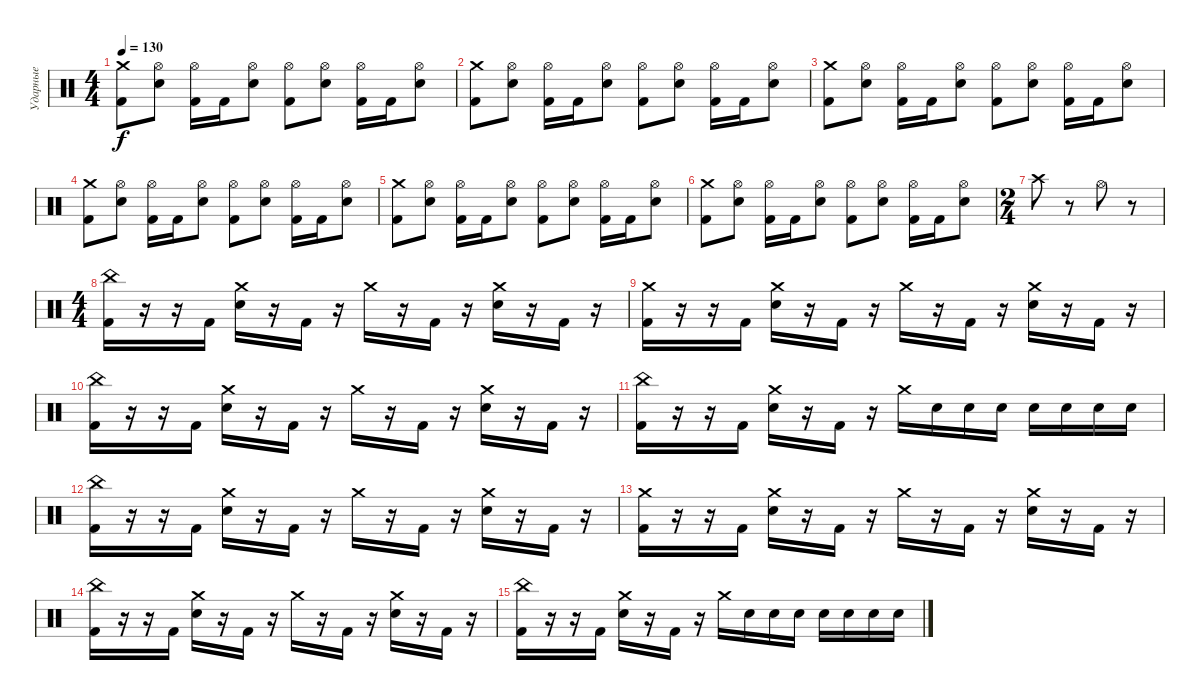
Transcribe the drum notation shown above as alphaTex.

\track ("Ударные" "Ударные") {instrument percussion}
\staff {score}
\articulation defaults
\ts (4 4)
\tempo 130
\clef neutral
\ks c
("Crash medium (hit)" "Kick (hit) 2").8{dy f} ("Hi-Hat (open)" "Electric Snare (hit)").8 ("Hi-Hat (open)" "Kick (hit) 2").16 "Kick (hit) 2".16 ("Hi-Hat (open)" "Electric Snare (hit)").8 ("Hi-Hat (open)" "Kick (hit) 2").8 ("Hi-Hat (open)" "Electric Snare (hit)").8 ("Hi-Hat (open)" "Kick (hit) 2").16 "Kick (hit) 2".16 ("Hi-Hat (open)" "Electric Snare (hit)").8 |
("Crash medium (hit)" "Kick (hit) 2").8 ("Hi-Hat (open)" "Electric Snare (hit)").8 ("Hi-Hat (open)" "Kick (hit) 2").16 "Kick (hit) 2".16 ("Hi-Hat (open)" "Electric Snare (hit)").8 ("Hi-Hat (open)" "Kick (hit) 2").8 ("Hi-Hat (open)" "Electric Snare (hit)").8 ("Hi-Hat (open)" "Kick (hit) 2").16 "Kick (hit) 2".16 ("Hi-Hat (open)" "Electric Snare (hit)").8 |
("Crash medium (hit)" "Kick (hit) 2").8 ("Hi-Hat (open)" "Electric Snare (hit)").8 ("Hi-Hat (open)" "Kick (hit) 2").16 "Kick (hit) 2".16 ("Hi-Hat (open)" "Electric Snare (hit)").8 ("Hi-Hat (open)" "Kick (hit) 2").8 ("Hi-Hat (open)" "Electric Snare (hit)").8 ("Hi-Hat (open)" "Kick (hit) 2").16 "Kick (hit) 2".16 ("Hi-Hat (open)" "Electric Snare (hit)").8 |
("Crash medium (hit)" "Kick (hit) 2").8 ("Hi-Hat (open)" "Electric Snare (hit)").8 ("Hi-Hat (open)" "Kick (hit) 2").16 "Kick (hit) 2".16 ("Hi-Hat (open)" "Electric Snare (hit)").8 ("Hi-Hat (open)" "Kick (hit) 2").8 ("Hi-Hat (open)" "Electric Snare (hit)").8 ("Hi-Hat (open)" "Kick (hit) 2").16 "Kick (hit) 2".16 ("Hi-Hat (open)" "Electric Snare (hit)").8 |
("Crash medium (hit)" "Kick (hit) 2").8 ("Hi-Hat (open)" "Electric Snare (hit)").8 ("Hi-Hat (open)" "Kick (hit) 2").16 "Kick (hit) 2".16 ("Hi-Hat (open)" "Electric Snare (hit)").8 ("Hi-Hat (open)" "Kick (hit) 2").8 ("Hi-Hat (open)" "Electric Snare (hit)").8 ("Hi-Hat (open)" "Kick (hit) 2").16 "Kick (hit) 2".16 ("Hi-Hat (open)" "Electric Snare (hit)").8 |
("Crash medium (hit)" "Kick (hit) 2").8 ("Hi-Hat (open)" "Electric Snare (hit)").8 ("Hi-Hat (open)" "Kick (hit) 2").16 "Kick (hit) 2".16 ("Hi-Hat (open)" "Electric Snare (hit)").8 ("Hi-Hat (open)" "Kick (hit) 2").8 ("Hi-Hat (open)" "Electric Snare (hit)").8 ("Hi-Hat (open)" "Kick (hit) 2").16 "Kick (hit) 2".16 ("Hi-Hat (open)" "Electric Snare (hit)").8 |
\ts (2 4)
"Crash high (hit)".8 r.8{volume 0} "Hi-Hat (open)".8{volume 15} r.8{volume 0} |
\ts (4 4)
("China (hit)" "Kick (hit) 2").16{volume 15} r.16 r.16 "Kick (hit) 2".16 ("Crash medium (hit)" "Electric Snare (hit)").16 r.16 "Kick (hit) 2".16 r.16 "Crash medium (hit)".16 r.16 "Kick (hit) 2".16 r.16 ("Crash medium (hit)" "Electric Snare (hit)").16 r.16 "Kick (hit) 2".16 r.16 |
("Crash medium (hit)" "Kick (hit) 2").16 r.16 r.16 "Kick (hit) 2".16 ("Crash medium (hit)" "Electric Snare (hit)").16 r.16 "Kick (hit) 2".16 r.16 "Crash medium (hit)".16 r.16 "Kick (hit) 2".16 r.16 ("Crash medium (hit)" "Electric Snare (hit)").16 r.16 "Kick (hit) 2".16 r.16 |
("China (hit)" "Kick (hit) 2").16 r.16 r.16 "Kick (hit) 2".16 ("Crash medium (hit)" "Electric Snare (hit)").16 r.16 "Kick (hit) 2".16 r.16 "Crash medium (hit)".16 r.16 "Kick (hit) 2".16 r.16 ("Crash medium (hit)" "Electric Snare (hit)").16 r.16 "Kick (hit) 2".16 r.16 |
("China (hit)" "Kick (hit) 2").16 r.16 r.16 "Kick (hit) 2".16 ("Crash medium (hit)" "Electric Snare (hit)").16 r.16 "Kick (hit) 2".16 r.16 "Crash medium (hit)".16 "Electric Snare (hit)".16 "Electric Snare (hit)".16 "Electric Snare (hit)".16 "Electric Snare (hit)".16 "Electric Snare (hit)".16 "Electric Snare (hit)".16 "Electric Snare (hit)".16 |
("China (hit)" "Kick (hit) 2").16 r.16 r.16 "Kick (hit) 2".16 ("Crash medium (hit)" "Electric Snare (hit)").16 r.16 "Kick (hit) 2".16 r.16 "Crash medium (hit)".16 r.16 "Kick (hit) 2".16 r.16 ("Crash medium (hit)" "Electric Snare (hit)").16 r.16 "Kick (hit) 2".16 r.16 |
("Crash medium (hit)" "Kick (hit) 2").16 r.16 r.16 "Kick (hit) 2".16 ("Crash medium (hit)" "Electric Snare (hit)").16 r.16 "Kick (hit) 2".16 r.16 "Crash medium (hit)".16 r.16 "Kick (hit) 2".16 r.16 ("Crash medium (hit)" "Electric Snare (hit)").16 r.16 "Kick (hit) 2".16 r.16 |
("China (hit)" "Kick (hit) 2").16 r.16 r.16 "Kick (hit) 2".16 ("Crash medium (hit)" "Electric Snare (hit)").16 r.16 "Kick (hit) 2".16 r.16 "Crash medium (hit)".16 r.16 "Kick (hit) 2".16 r.16 ("Crash medium (hit)" "Electric Snare (hit)").16 r.16 "Kick (hit) 2".16 r.16 |
("China (hit)" "Kick (hit) 2").16 r.16 r.16 "Kick (hit) 2".16 ("Crash medium (hit)" "Electric Snare (hit)").16 r.16 "Kick (hit) 2".16 r.16 "Crash medium (hit)".16 "Electric Snare (hit)".16 "Electric Snare (hit)".16 "Electric Snare (hit)".16 "Electric Snare (hit)".16 "Electric Snare (hit)".16 "Electric Snare (hit)".16 "Electric Snare (hit)".16
